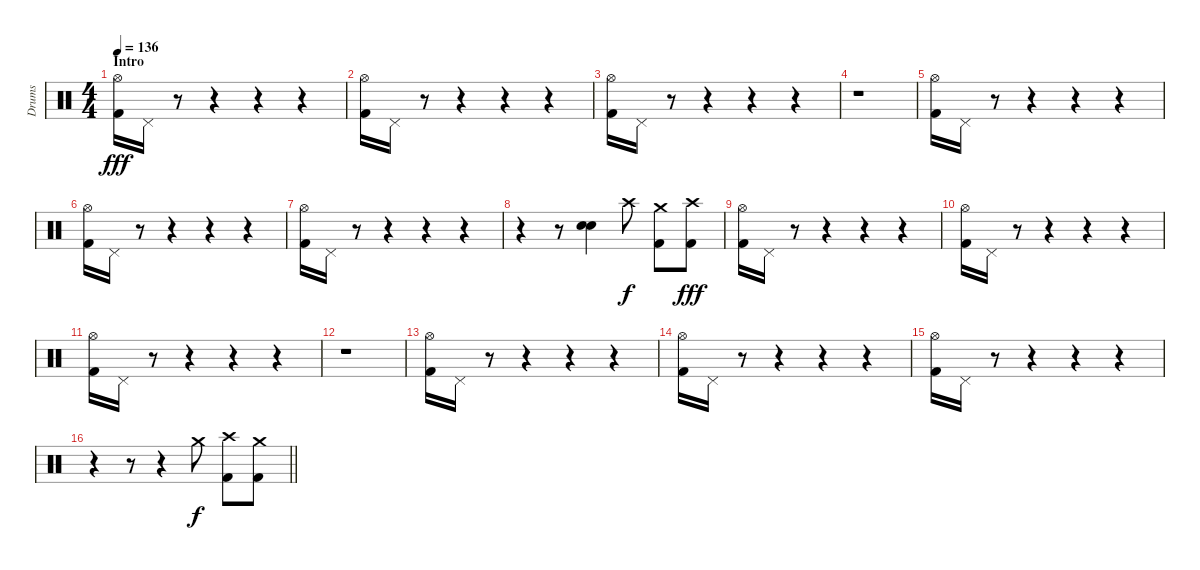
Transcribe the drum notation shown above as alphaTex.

\track ("Drums" "Drums") {instrument percussion}
\staff {score}
\articulation defaults
\ts (4 4)
\section ("" "Intro")
\tempo 136
\clef neutral
\ks c
("Hi-Hat (open)" "Kick (hit) 2").16{dy fff} "Pedal Hi-Hat (hit)".16 r.8 r.4 r.4 r.4 |
("Hi-Hat (open)" "Kick (hit) 2").16 "Pedal Hi-Hat (hit)".16 r.8 r.4 r.4 r.4 |
("Hi-Hat (open)" "Kick (hit) 2").16 "Pedal Hi-Hat (hit)".16 r.8 r.4 r.4 r.4 |
r.1 |
("Hi-Hat (open)" "Kick (hit) 2").16 "Pedal Hi-Hat (hit)".16 r.8 r.4 r.4 r.4 |
("Hi-Hat (open)" "Kick (hit) 2").16 "Pedal Hi-Hat (hit)".16 r.8 r.4 r.4 r.4 |
("Hi-Hat (open)" "Kick (hit) 2").16 "Pedal Hi-Hat (hit)".16 r.8 r.4 r.4 r.4 |
r.4 r.8 ("Electric Snare (hit)" "Electric Snare (hit)").4 "Crash high (hit)".8{dy f} ("Crash medium (hit)" "Kick (hit) 2").8 ("Crash high (hit)" "Kick (hit) 2").8{dy fff} |
("Hi-Hat (open)" "Kick (hit) 2").16 "Pedal Hi-Hat (hit)".16 r.8 r.4 r.4 r.4 |
("Hi-Hat (open)" "Kick (hit) 2").16 "Pedal Hi-Hat (hit)".16 r.8 r.4 r.4 r.4 |
("Hi-Hat (open)" "Kick (hit) 2").16 "Pedal Hi-Hat (hit)".16 r.8 r.4 r.4 r.4 |
r.1 |
("Hi-Hat (open)" "Kick (hit) 2").16 "Pedal Hi-Hat (hit)".16 r.8 r.4 r.4 r.4 |
("Hi-Hat (open)" "Kick (hit) 2").16 "Pedal Hi-Hat (hit)".16 r.8 r.4 r.4 r.4 |
("Hi-Hat (open)" "Kick (hit) 2").16 "Pedal Hi-Hat (hit)".16 r.8 r.4 r.4 r.4 |
\barLineRight lightlight
r.4 r.8 r.4 "Crash medium (hit)".8{dy f} ("Crash high (hit)" "Kick (hit) 2").8 ("Crash medium (hit)" "Kick (hit) 2").8
